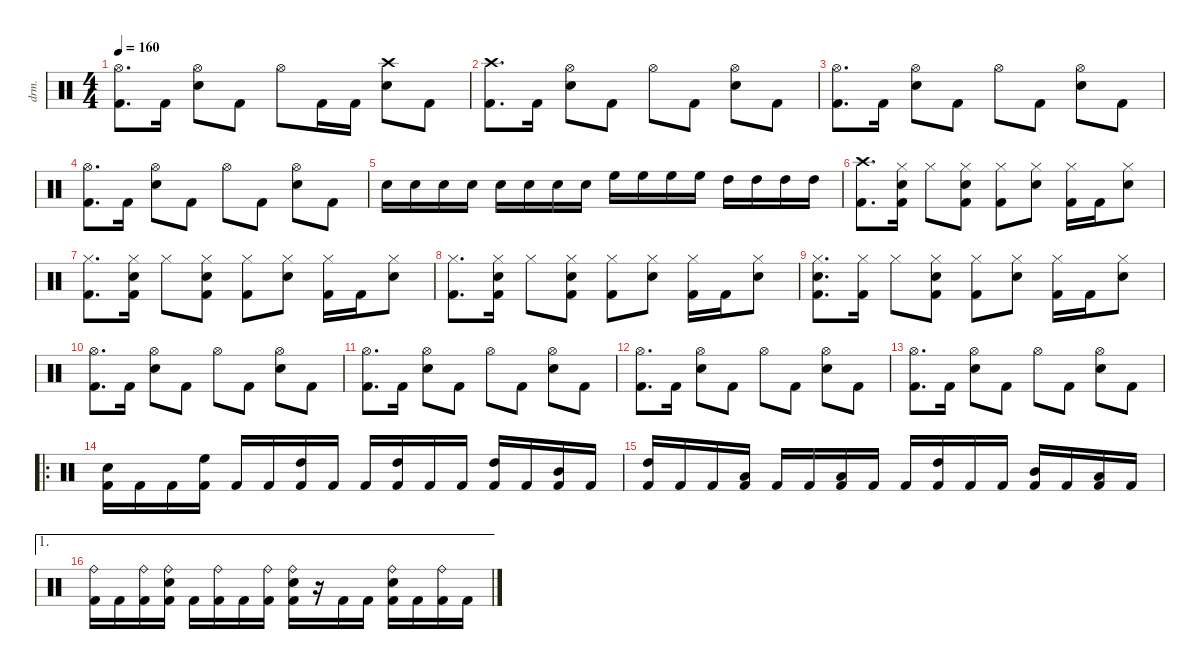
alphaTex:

\defaultSystemsLayout 4
\hideDynamics
\bracketExtendMode nobrackets
\track ("Menza" "drm.") {instrument percussion}
\staff {score}
\articulation defaults
\ts (4 4)
\tempo 160
\clef neutral
\ks c
("Hi-Hat (open)" "Kick (hit) 2").8{d dy f} "Kick (hit) 2".16 ("Hi-Hat (open)" "Snare (hit) 2").8 "Kick (hit) 2".8 "Hi-Hat (open)".8 "Kick (hit) 2".16 "Kick (hit) 2".16 ("Crash high (hit)" "Snare (hit) 2").8 "Kick (hit) 2".8 |
("Crash high (hit)" "Kick (hit) 2").8{d} "Kick (hit) 2".16 ("Hi-Hat (open)" "Snare (hit) 2").8 "Kick (hit) 2".8 "Hi-Hat (open)".8 "Kick (hit) 2".8 ("Hi-Hat (open)" "Snare (hit) 2").8 "Kick (hit) 2".8 |
("Hi-Hat (open)" "Kick (hit) 2").8{d} "Kick (hit) 2".16 ("Hi-Hat (open)" "Snare (hit) 2").8 "Kick (hit) 2".8 "Hi-Hat (open)".8 "Kick (hit) 2".8 ("Hi-Hat (open)" "Snare (hit) 2").8 "Kick (hit) 2".8 |
("Hi-Hat (open)" "Kick (hit) 2").8{d} "Kick (hit) 2".16 ("Hi-Hat (open)" "Snare (hit) 2").8 "Kick (hit) 2".8 "Hi-Hat (open)".8 "Kick (hit) 2".8 ("Hi-Hat (open)" "Snare (hit) 2").8 "Kick (hit) 2".8 |
"Snare (hit) 2".16 "Snare (hit) 2".16 "Snare (hit) 2".16 "Snare (hit) 2".16 "Snare (hit) 2".16 "Snare (hit) 2".16 "Snare (hit) 2".16 "Snare (hit) 2".16 "High Floor Tom (hit)".16 "High Floor Tom (hit)".16 "High Floor Tom (hit)".16 "High Floor Tom (hit)".16 "High Tom (hit)".16 "High Tom (hit)".16 "High Tom (hit)".16 "High Tom (hit)".16 |
("Crash high (hit)" "Kick (hit) 2").8{d} ("Hi-Hat (closed)" "Snare (hit) 2" "Kick (hit) 2").16 "Hi-Hat (closed)".8 ("Hi-Hat (closed)" "Snare (hit) 2" "Kick (hit) 2").8 ("Hi-Hat (closed)" "Kick (hit) 2").8 ("Hi-Hat (closed)" "Snare (hit) 2").8 ("Hi-Hat (closed)" "Kick (hit) 2").16 "Kick (hit) 2".16 ("Hi-Hat (closed)" "Snare (hit) 2").8 |
("Hi-Hat (closed)" "Kick (hit) 2").8{d} ("Hi-Hat (closed)" "Snare (hit) 2" "Kick (hit) 2").16 "Hi-Hat (closed)".8 ("Hi-Hat (closed)" "Snare (hit) 2" "Kick (hit) 2").8 ("Hi-Hat (closed)" "Kick (hit) 2").8 ("Hi-Hat (closed)" "Snare (hit) 2").8 ("Hi-Hat (closed)" "Kick (hit) 2").16 "Kick (hit) 2".16 ("Hi-Hat (closed)" "Snare (hit) 2").8 |
("Hi-Hat (closed)" "Kick (hit) 2").8{d} ("Hi-Hat (closed)" "Snare (hit) 2" "Kick (hit) 2").16 "Hi-Hat (closed)".8 ("Hi-Hat (closed)" "Snare (hit) 2" "Kick (hit) 2").8 ("Hi-Hat (closed)" "Kick (hit) 2").8 ("Hi-Hat (closed)" "Snare (hit) 2").8 ("Hi-Hat (closed)" "Kick (hit) 2").16 "Kick (hit) 2".16 ("Hi-Hat (closed)" "Snare (hit) 2").8 |
("Hi-Hat (closed)" "Snare (hit) 2" "Kick (hit) 2").8{d} ("Hi-Hat (closed)" "Kick (hit) 2").16 "Hi-Hat (closed)".8 ("Hi-Hat (closed)" "Snare (hit) 2" "Kick (hit) 2").8 ("Hi-Hat (closed)" "Kick (hit) 2").8 ("Hi-Hat (closed)" "Snare (hit) 2").8 ("Hi-Hat (closed)" "Kick (hit) 2").16 "Kick (hit) 2".16 ("Hi-Hat (closed)" "Snare (hit) 2").8 |
("Hi-Hat (open)" "Kick (hit) 2").8{d} "Kick (hit) 2".16 ("Hi-Hat (open)" "Snare (hit) 2").8 "Kick (hit) 2".8 "Hi-Hat (open)".8 "Kick (hit) 2".8 ("Hi-Hat (open)" "Snare (hit) 2").8 "Kick (hit) 2".8 |
("Hi-Hat (open)" "Kick (hit) 2").8{d} "Kick (hit) 2".16 ("Hi-Hat (open)" "Snare (hit) 2").8 "Kick (hit) 2".8 "Hi-Hat (open)".8 "Kick (hit) 2".8 ("Hi-Hat (open)" "Snare (hit) 2").8 "Kick (hit) 2".8 |
("Hi-Hat (open)" "Kick (hit) 2").8{d} "Kick (hit) 2".16 ("Hi-Hat (open)" "Snare (hit) 2").8 "Kick (hit) 2".8 "Hi-Hat (open)".8 "Kick (hit) 2".8 ("Hi-Hat (open)" "Snare (hit) 2").8 "Kick (hit) 2".8 |
("Hi-Hat (open)" "Kick (hit) 2").8{d} "Kick (hit) 2".16 ("Hi-Hat (open)" "Snare (hit) 2").8 "Kick (hit) 2".8 "Hi-Hat (open)".8 "Kick (hit) 2".8 ("Hi-Hat (open)" "Snare (hit) 2").8 "Kick (hit) 2".8 |
\ro
("Snare (hit) 2" "Kick (hit) 2").16 "Kick (hit) 2".16 "Kick (hit) 2".16 ("High Floor Tom (hit)" "Kick (hit) 2").16 "Kick (hit) 2".16 "Kick (hit) 2".16 ("High Tom (hit)" "Kick (hit) 2").16 "Kick (hit) 2".16 "Kick (hit) 2".16 ("High Tom (hit)" "Kick (hit) 2").16 "Kick (hit) 2".16 "Kick (hit) 2".16 ("High Tom (hit)" "Kick (hit) 2").16 "Kick (hit) 2".16 ("Mid Tom (hit)" "Kick (hit) 2").16 "Kick (hit) 2".16 |
("High Tom (hit)" "Kick (hit) 2").16 "Kick (hit) 2".16 "Kick (hit) 2".16 ("Low Tom (hit)" "Kick (hit) 2").16 "Kick (hit) 2".16 "Kick (hit) 2".16 ("Low Tom (hit)" "Kick (hit) 2").16 "Kick (hit) 2".16 "Kick (hit) 2".16 ("High Tom (hit)" "Kick (hit) 2").16 "Kick (hit) 2".16 "Kick (hit) 2".16 ("Mid Tom (hit)" "Kick (hit) 2").16 "Kick (hit) 2".16 ("Low Tom (hit)" "Kick (hit) 2").16 "Kick (hit) 2".16 |
\ae 1
("Ride (bell)" "Kick (hit) 2").16 "Kick (hit) 2".16 ("Ride (bell)" "Kick (hit) 2").16 ("Ride (bell)" "Snare (hit) 2" "Kick (hit) 2").16 "Kick (hit) 2".16 ("Ride (bell)" "Kick (hit) 2").16 "Kick (hit) 2".16 ("Ride (bell)" "Kick (hit) 2").16 ("Ride (bell)" "Snare (hit) 2" "Kick (hit) 2").16 r.16 "Kick (hit) 2".16 "Kick (hit) 2".16 ("Ride (bell)" "Snare (hit) 2" "Kick (hit) 2").16 "Kick (hit) 2".16 ("Ride (bell)" "Kick (hit) 2").16 "Kick (hit) 2".16
